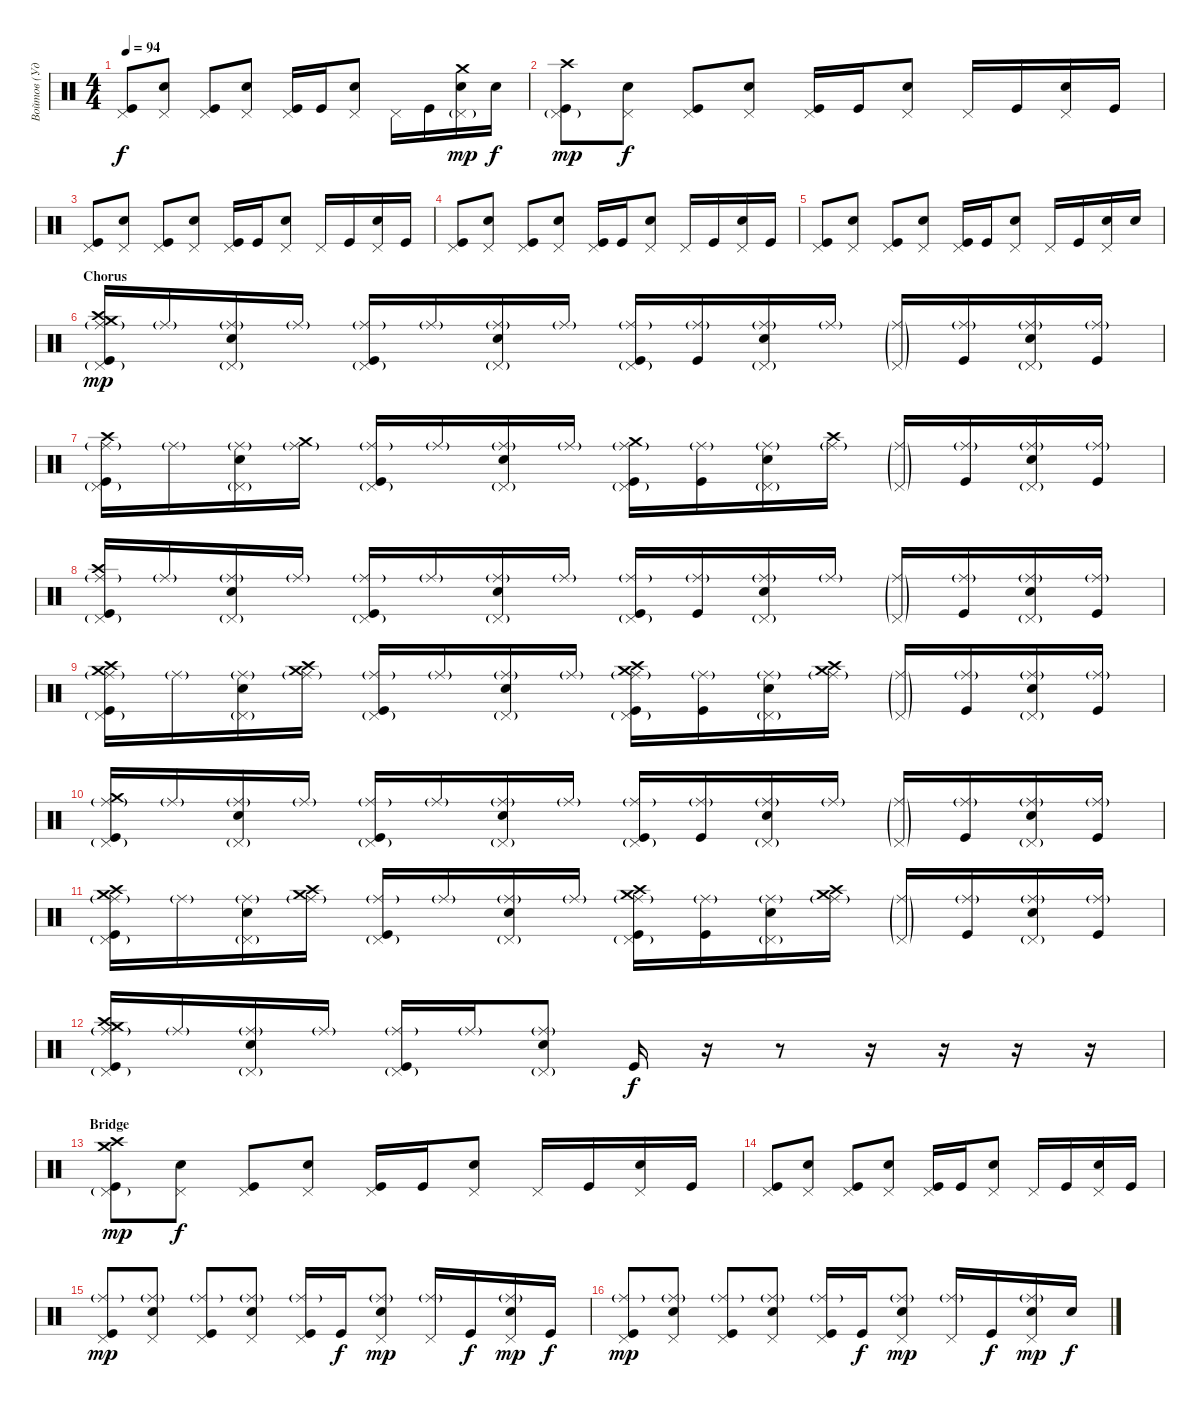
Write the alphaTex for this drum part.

\track ("Войтов (Ударные)" "Войтов (Уд") {instrument percussion}
\staff {score}
\articulation defaults
\ts (4 4)
\tempo 94
\clef neutral
\ks c
("Pedal Hi-Hat (hit)" "Kick (hit)").8{dy f} ("Pedal Hi-Hat (hit)" "Electric Snare (hit)").8 ("Pedal Hi-Hat (hit)" "Kick (hit)").8 ("Pedal Hi-Hat (hit)" "Electric Snare (hit)").8 ("Pedal Hi-Hat (hit)" "Kick (hit)").16 "Kick (hit)".16 ("Pedal Hi-Hat (hit)" "Electric Snare (hit)").8 "Pedal Hi-Hat (hit)".16 "Kick (hit)".16 ("Crash medium (hit)" "Pedal Hi-Hat (hit)"{g} "Electric Snare (hit)").16{dy mp} "Electric Snare (hit)".16{dy f} |
("Crash high (hit)" "Pedal Hi-Hat (hit)"{g} "Kick (hit)").8{dy mp} ("Pedal Hi-Hat (hit)" "Electric Snare (hit)").8{dy f} ("Pedal Hi-Hat (hit)" "Kick (hit)").8 ("Pedal Hi-Hat (hit)" "Electric Snare (hit)").8 ("Pedal Hi-Hat (hit)" "Kick (hit)").16 "Kick (hit)".16 ("Pedal Hi-Hat (hit)" "Electric Snare (hit)").8 "Pedal Hi-Hat (hit)".16 "Kick (hit)".16 ("Pedal Hi-Hat (hit)" "Electric Snare (hit)").16 "Kick (hit)".16 |
("Pedal Hi-Hat (hit)" "Kick (hit)").8 ("Pedal Hi-Hat (hit)" "Electric Snare (hit)").8 ("Pedal Hi-Hat (hit)" "Kick (hit)").8 ("Pedal Hi-Hat (hit)" "Electric Snare (hit)").8 ("Pedal Hi-Hat (hit)" "Kick (hit)").16 "Kick (hit)".16 ("Pedal Hi-Hat (hit)" "Electric Snare (hit)").8 "Pedal Hi-Hat (hit)".16 "Kick (hit)".16 ("Pedal Hi-Hat (hit)" "Electric Snare (hit)").16 "Kick (hit)".16 |
("Pedal Hi-Hat (hit)" "Kick (hit)").8 ("Pedal Hi-Hat (hit)" "Electric Snare (hit)").8 ("Pedal Hi-Hat (hit)" "Kick (hit)").8 ("Pedal Hi-Hat (hit)" "Electric Snare (hit)").8 ("Pedal Hi-Hat (hit)" "Kick (hit)").16 "Kick (hit)".16 ("Pedal Hi-Hat (hit)" "Electric Snare (hit)").8 "Pedal Hi-Hat (hit)".16 "Kick (hit)".16 ("Pedal Hi-Hat (hit)" "Electric Snare (hit)").16 "Kick (hit)".16 |
("Pedal Hi-Hat (hit)" "Kick (hit)").8 ("Pedal Hi-Hat (hit)" "Electric Snare (hit)").8 ("Pedal Hi-Hat (hit)" "Kick (hit)").8 ("Pedal Hi-Hat (hit)" "Electric Snare (hit)").8 ("Pedal Hi-Hat (hit)" "Kick (hit)").16 "Kick (hit)".16 ("Pedal Hi-Hat (hit)" "Electric Snare (hit)").8 "Pedal Hi-Hat (hit)".16 "Kick (hit)".16 ("Pedal Hi-Hat (hit)" "Electric Snare (hit)").16 "Electric Snare (hit)".16 |
\section ("" "Chorus")
("Crash high (hit)" "Ride (middle)"{g} "Crash medium (hit)" "Pedal Hi-Hat (hit)"{g} "Kick (hit)").16{dy mp} "Ride (middle)"{g}.16 ("Ride (middle)"{g} "Pedal Hi-Hat (hit)"{g} "Electric Snare (hit)").16 "Ride (middle)"{g}.16 ("Ride (middle)"{g} "Pedal Hi-Hat (hit)"{g} "Kick (hit)").16 "Ride (middle)"{g}.16 ("Ride (middle)"{g} "Pedal Hi-Hat (hit)"{g} "Electric Snare (hit)").16 "Ride (middle)"{g}.16 ("Ride (middle)"{g} "Pedal Hi-Hat (hit)"{g} "Kick (hit)").16 ("Ride (middle)"{g} "Kick (hit)").16 ("Ride (middle)"{g} "Pedal Hi-Hat (hit)"{g} "Electric Snare (hit)").16 "Ride (middle)"{g}.16 ("Ride (middle)"{g} "Pedal Hi-Hat (hit)"{g}).16 ("Ride (middle)"{g} "Kick (hit)").16 ("Ride (middle)"{g} "Pedal Hi-Hat (hit)"{g} "Electric Snare (hit)").16 ("Ride (middle)"{g} "Kick (hit)").16 |
("Crash high (hit)" "Ride (middle)"{g} "Pedal Hi-Hat (hit)"{g} "Kick (hit)").16 "Ride (middle)"{g}.16 ("Ride (middle)"{g} "Pedal Hi-Hat (hit)"{g} "Electric Snare (hit)").16 ("Crash medium (hit)" "Ride (middle)"{g}).16 ("Ride (middle)"{g} "Pedal Hi-Hat (hit)"{g} "Kick (hit)").16 "Ride (middle)"{g}.16 ("Ride (middle)"{g} "Pedal Hi-Hat (hit)"{g} "Electric Snare (hit)").16 "Ride (middle)"{g}.16 ("Crash medium (hit)" "Ride (middle)"{g} "Pedal Hi-Hat (hit)"{g} "Kick (hit)").16 ("Ride (middle)"{g} "Kick (hit)").16 ("Ride (middle)"{g} "Pedal Hi-Hat (hit)"{g} "Electric Snare (hit)").16 ("Crash high (hit)" "Ride (middle)"{g}).16 ("Ride (middle)"{g} "Pedal Hi-Hat (hit)"{g}).16 ("Ride (middle)"{g} "Kick (hit)").16 ("Ride (middle)"{g} "Pedal Hi-Hat (hit)"{g} "Electric Snare (hit)").16 ("Ride (middle)"{g} "Kick (hit)").16 |
("Crash high (hit)" "Ride (middle)"{g} "Pedal Hi-Hat (hit)"{g} "Kick (hit)").16 "Ride (middle)"{g}.16 ("Ride (middle)"{g} "Pedal Hi-Hat (hit)"{g} "Electric Snare (hit)").16 "Ride (middle)"{g}.16 ("Ride (middle)"{g} "Pedal Hi-Hat (hit)"{g} "Kick (hit)").16 "Ride (middle)"{g}.16 ("Ride (middle)"{g} "Pedal Hi-Hat (hit)"{g} "Electric Snare (hit)").16 "Ride (middle)"{g}.16 ("Ride (middle)"{g} "Pedal Hi-Hat (hit)"{g} "Kick (hit)").16 ("Ride (middle)"{g} "Kick (hit)").16 ("Ride (middle)"{g} "Pedal Hi-Hat (hit)"{g} "Electric Snare (hit)").16 "Ride (middle)"{g}.16 ("Ride (middle)"{g} "Pedal Hi-Hat (hit)"{g}).16 ("Ride (middle)"{g} "Kick (hit)").16 ("Ride (middle)"{g} "Pedal Hi-Hat (hit)"{g} "Electric Snare (hit)").16 ("Ride (middle)"{g} "Kick (hit)").16 |
("Crash high (hit)" "Ride (middle)"{g} "Crash medium (hit)" "Pedal Hi-Hat (hit)"{g} "Kick (hit)").16 "Ride (middle)"{g}.16 ("Ride (middle)"{g} "Pedal Hi-Hat (hit)"{g} "Electric Snare (hit)").16 ("Crash high (hit)" "Ride (middle)"{g} "Crash medium (hit)").16 ("Ride (middle)"{g} "Pedal Hi-Hat (hit)"{g} "Kick (hit)").16 "Ride (middle)"{g}.16 ("Ride (middle)"{g} "Pedal Hi-Hat (hit)"{g} "Electric Snare (hit)").16 "Ride (middle)"{g}.16 ("Crash high (hit)" "Ride (middle)"{g} "Crash medium (hit)" "Pedal Hi-Hat (hit)"{g} "Kick (hit)").16 ("Ride (middle)"{g} "Kick (hit)").16 ("Ride (middle)"{g} "Pedal Hi-Hat (hit)"{g} "Electric Snare (hit)").16 ("Crash high (hit)" "Ride (middle)"{g} "Crash medium (hit)").16 ("Ride (middle)"{g} "Pedal Hi-Hat (hit)"{g}).16 ("Ride (middle)"{g} "Kick (hit)").16 ("Ride (middle)"{g} "Pedal Hi-Hat (hit)"{g} "Electric Snare (hit)").16 ("Ride (middle)"{g} "Kick (hit)").16 |
("Crash medium (hit)" "Ride (middle)"{g} "Pedal Hi-Hat (hit)"{g} "Kick (hit)").16 "Ride (middle)"{g}.16 ("Ride (middle)"{g} "Pedal Hi-Hat (hit)"{g} "Electric Snare (hit)").16 "Ride (middle)"{g}.16 ("Ride (middle)"{g} "Pedal Hi-Hat (hit)"{g} "Kick (hit)").16 "Ride (middle)"{g}.16 ("Ride (middle)"{g} "Pedal Hi-Hat (hit)"{g} "Electric Snare (hit)").16 "Ride (middle)"{g}.16 ("Ride (middle)"{g} "Pedal Hi-Hat (hit)"{g} "Kick (hit)").16 ("Ride (middle)"{g} "Kick (hit)").16 ("Ride (middle)"{g} "Pedal Hi-Hat (hit)"{g} "Electric Snare (hit)").16 "Ride (middle)"{g}.16 ("Ride (middle)"{g} "Pedal Hi-Hat (hit)"{g}).16 ("Ride (middle)"{g} "Kick (hit)").16 ("Ride (middle)"{g} "Pedal Hi-Hat (hit)"{g} "Electric Snare (hit)").16 ("Ride (middle)"{g} "Kick (hit)").16 |
("Crash high (hit)" "Ride (middle)"{g} "Crash medium (hit)" "Pedal Hi-Hat (hit)"{g} "Kick (hit)").16 "Ride (middle)"{g}.16 ("Ride (middle)"{g} "Pedal Hi-Hat (hit)"{g} "Electric Snare (hit)").16 ("Crash high (hit)" "Ride (middle)"{g} "Crash medium (hit)").16 ("Ride (middle)"{g} "Pedal Hi-Hat (hit)"{g} "Kick (hit)").16 "Ride (middle)"{g}.16 ("Ride (middle)"{g} "Pedal Hi-Hat (hit)"{g} "Electric Snare (hit)").16 "Ride (middle)"{g}.16 ("Crash high (hit)" "Ride (middle)"{g} "Crash medium (hit)" "Pedal Hi-Hat (hit)"{g} "Kick (hit)").16 ("Ride (middle)"{g} "Kick (hit)").16 ("Ride (middle)"{g} "Pedal Hi-Hat (hit)"{g} "Electric Snare (hit)").16 ("Crash high (hit)" "Ride (middle)"{g} "Crash medium (hit)").16 ("Ride (middle)"{g} "Pedal Hi-Hat (hit)"{g}).16 ("Ride (middle)"{g} "Kick (hit)").16 ("Ride (middle)"{g} "Pedal Hi-Hat (hit)"{g} "Electric Snare (hit)").16 ("Ride (middle)"{g} "Kick (hit)").16 |
("Crash high (hit)" "Ride (middle)"{g} "Crash medium (hit)" "Pedal Hi-Hat (hit)"{g} "Kick (hit)").16 "Ride (middle)"{g}.16 ("Ride (middle)"{g} "Pedal Hi-Hat (hit)"{g} "Electric Snare (hit)").16 "Ride (middle)"{g}.16 ("Ride (middle)"{g} "Pedal Hi-Hat (hit)"{g} "Kick (hit)").16 "Ride (middle)"{g}.16 ("Ride (middle)"{g} "Pedal Hi-Hat (hit)"{g} "Electric Snare (hit)").8 "Kick (hit)".16{dy f} r.16 r.8 r.16 r.16 r.16 r.16 |
\section ("" "Bridge")
("Crash medium (hit)" "Crash high (hit)" "Pedal Hi-Hat (hit)"{g} "Kick (hit)").8{dy mp} ("Pedal Hi-Hat (hit)" "Electric Snare (hit)").8{dy f} ("Pedal Hi-Hat (hit)" "Kick (hit)").8 ("Pedal Hi-Hat (hit)" "Electric Snare (hit)").8 ("Pedal Hi-Hat (hit)" "Kick (hit)").16 "Kick (hit)".16 ("Pedal Hi-Hat (hit)" "Electric Snare (hit)").8 "Pedal Hi-Hat (hit)".16 "Kick (hit)".16 ("Pedal Hi-Hat (hit)" "Electric Snare (hit)").16 "Kick (hit)".16 |
("Pedal Hi-Hat (hit)" "Kick (hit)").8 ("Pedal Hi-Hat (hit)" "Electric Snare (hit)").8 ("Pedal Hi-Hat (hit)" "Kick (hit)").8 ("Pedal Hi-Hat (hit)" "Electric Snare (hit)").8 ("Pedal Hi-Hat (hit)" "Kick (hit)").16 "Kick (hit)".16 ("Pedal Hi-Hat (hit)" "Electric Snare (hit)").8 "Pedal Hi-Hat (hit)".16 "Kick (hit)".16 ("Pedal Hi-Hat (hit)" "Electric Snare (hit)").16 "Kick (hit)".16 |
("Ride (middle)"{g} "Pedal Hi-Hat (hit)" "Kick (hit)").8{dy mp} ("Ride (middle)"{g} "Pedal Hi-Hat (hit)" "Electric Snare (hit)").8 ("Ride (middle)"{g} "Pedal Hi-Hat (hit)" "Kick (hit)").8 ("Ride (middle)"{g} "Pedal Hi-Hat (hit)" "Electric Snare (hit)").8 ("Ride (middle)"{g} "Pedal Hi-Hat (hit)" "Kick (hit)").16 "Kick (hit)".16{dy f} ("Ride (middle)"{g} "Pedal Hi-Hat (hit)" "Electric Snare (hit)").8{dy mp} ("Ride (middle)"{g} "Pedal Hi-Hat (hit)").16 "Kick (hit)".16{dy f} ("Ride (middle)"{g} "Pedal Hi-Hat (hit)" "Electric Snare (hit)").16{dy mp} "Kick (hit)".16{dy f} |
("Ride (middle)"{g} "Pedal Hi-Hat (hit)" "Kick (hit)").8{dy mp} ("Ride (middle)"{g} "Pedal Hi-Hat (hit)" "Electric Snare (hit)").8 ("Ride (middle)"{g} "Pedal Hi-Hat (hit)" "Kick (hit)").8 ("Ride (middle)"{g} "Pedal Hi-Hat (hit)" "Electric Snare (hit)").8 ("Ride (middle)"{g} "Pedal Hi-Hat (hit)" "Kick (hit)").16 "Kick (hit)".16{dy f} ("Ride (middle)"{g} "Pedal Hi-Hat (hit)" "Electric Snare (hit)").8{dy mp} ("Ride (middle)"{g} "Pedal Hi-Hat (hit)").16 "Kick (hit)".16{dy f} ("Ride (middle)"{g} "Pedal Hi-Hat (hit)" "Electric Snare (hit)").16{dy mp} "Electric Snare (hit)".16{dy f}
